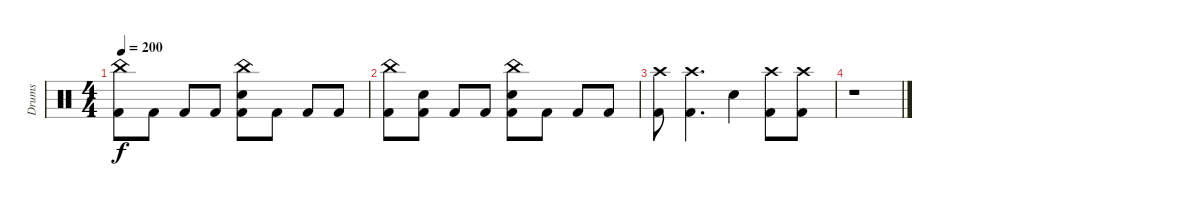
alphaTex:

\track ("Drums" "Drums") {instrument percussion}
\staff {score}
\articulation defaults
\ts (4 4)
\tempo 200
\clef neutral
\ks c
("China (hit)" "Kick (hit) 2").8{dy f} "Kick (hit) 2".8 "Kick (hit) 2".8 "Kick (hit) 2".8 ("China (hit)" "Snare (hit) 2" "Kick (hit) 2").8 "Kick (hit) 2".8 "Kick (hit) 2".8 "Kick (hit) 2".8 |
("China (hit)" "Kick (hit) 2").8 ("Snare (hit) 2" "Kick (hit) 2").8 "Kick (hit) 2".8 "Kick (hit) 2".8 ("China (hit)" "Snare (hit) 2" "Kick (hit) 2").8 "Kick (hit) 2".8 "Kick (hit) 2".8 "Kick (hit) 2".8 |
("Crash high (hit)"{x} "Kick (hit) 2").8 ("Crash high (hit)"{x} "Kick (hit) 2").4{d} "Snare (hit) 2".4 ("Crash high (hit)"{x} "Kick (hit) 2").8 ("Crash high (hit)"{x} "Kick (hit) 2").8 |
r.1
